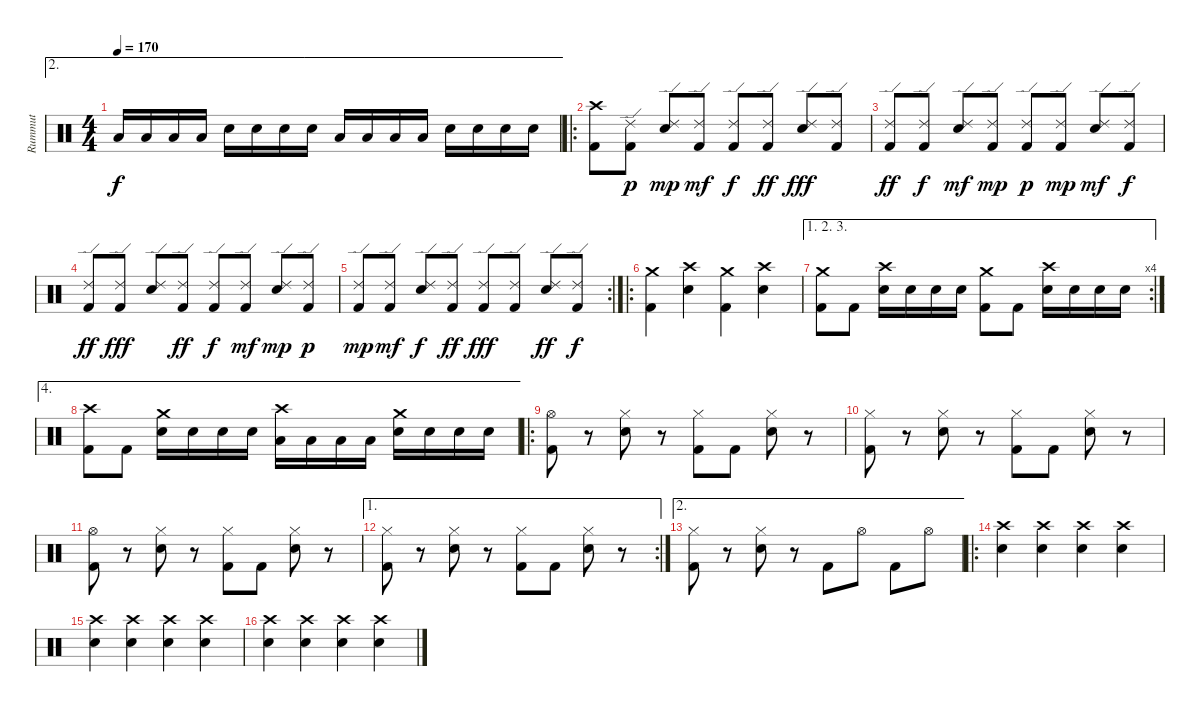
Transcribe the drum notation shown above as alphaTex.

\track ("Rummut" "Rummut") {instrument percussion}
\staff {score}
\articulation defaults
\ae 2
\ts (4 4)
\tempo 170
\clef neutral
\ks c "Low Tom (hit)".16{dy f} "Low Tom (hit)".16 "Low Tom (hit)".16 "Low Tom (hit)".16 "Electric Snare (hit)".16 "Electric Snare (hit)".16 "Electric Snare (hit)".16 "Electric Snare (hit)".16 "Low Tom (hit)".16 "Low Tom (hit)".16 "Low Tom (hit)".16 "Low Tom (hit)".16 "Electric Snare (hit)".16 "Electric Snare (hit)".16 "Electric Snare (hit)".16 "Electric Snare (hit)".16
|
\ro
("Crash high (hit)" "Kick (hit) 2").8 ("Ride (edge) 2" "Kick (hit) 2").8{dy p} ("Ride (edge) 2" "Electric Snare (hit)").8{dy mp} ("Ride (edge) 2" "Kick (hit) 2").8{dy mf} ("Ride (edge) 2" "Kick (hit) 2").8{dy f} ("Ride (edge) 2" "Kick (hit) 2").8{dy ff} ("Ride (edge) 2" "Electric Snare (hit)").8{dy fff} ("Ride (edge) 2" "Kick (hit) 2").8 |
("Ride (edge) 2" "Kick (hit) 2").8{dy ff} ("Ride (edge) 2" "Kick (hit) 2").8{dy f} ("Ride (edge) 2" "Electric Snare (hit)").8{dy mf} ("Ride (edge) 2" "Kick (hit) 2").8{dy mp} ("Ride (edge) 2" "Kick (hit) 2").8{dy p} ("Ride (edge) 2" "Kick (hit) 2").8{dy mp} ("Ride (edge) 2" "Electric Snare (hit)").8{dy mf} ("Ride (edge) 2" "Kick (hit) 2").8{dy f} |
("Ride (edge) 2" "Kick (hit) 2").8{dy ff} ("Ride (edge) 2" "Kick (hit) 2").8{dy fff} ("Ride (edge) 2" "Electric Snare (hit)").8 ("Ride (edge) 2" "Kick (hit) 2").8{dy ff} ("Ride (edge) 2" "Kick (hit) 2").8{dy f} ("Ride (edge) 2" "Kick (hit) 2").8{dy mf} ("Ride (edge) 2" "Electric Snare (hit)").8{dy mp} ("Ride (edge) 2" "Kick (hit) 2").8{dy p} |
\rc 2
("Ride (edge) 2" "Kick (hit) 2").8{dy mp} ("Ride (edge) 2" "Kick (hit) 2").8{dy mf} ("Ride (edge) 2" "Electric Snare (hit)").8{dy f} ("Ride (edge) 2" "Kick (hit) 2").8{dy ff} ("Ride (edge) 2" "Kick (hit) 2").8{dy fff} ("Ride (edge) 2" "Kick (hit) 2").8 ("Ride (edge) 2" "Electric Snare (hit)").8{dy ff} ("Ride (edge) 2" "Kick (hit) 2").8{dy f} |
\ro
("Crash medium (hit)" "Kick (hit) 2").4 ("Crash high (hit)" "Electric Snare (hit)").4 ("Crash medium (hit)" "Kick (hit) 2").4 ("Crash high (hit)" "Electric Snare (hit)").4 |
\ae (1 2 3)
\rc 4
("Crash medium (hit)" "Kick (hit) 2").8 "Kick (hit) 2".8 ("Crash high (hit)" "Electric Snare (hit)").16 "Electric Snare (hit)".16 "Electric Snare (hit)".16 "Electric Snare (hit)".16 ("Crash medium (hit)" "Kick (hit) 2").8 "Kick (hit) 2".8 ("Crash high (hit)" "Electric Snare (hit)").16 "Electric Snare (hit)".16 "Electric Snare (hit)".16 "Electric Snare (hit)".16 |
\ae 4
("Crash high (hit)" "Kick (hit) 2").8 "Kick (hit) 2".8 ("Crash medium (hit)" "Electric Snare (hit)").16 "Electric Snare (hit)".16 "Electric Snare (hit)".16 "Electric Snare (hit)".16 ("Crash high (hit)" "Low Tom (hit)").16 "Low Tom (hit)".16 "Low Tom (hit)".16 "Low Tom (hit)".16 ("Crash medium (hit)" "Electric Snare (hit)").16 "Electric Snare (hit)".16 "Electric Snare (hit)".16 "Electric Snare (hit)".16 |
\ro
("Hi-Hat (open)" "Kick (hit) 2").8 r.8 ("Hi-Hat (closed)" "Electric Snare (hit)").8 r.8 ("Hi-Hat (closed)" "Kick (hit) 2").8 "Kick (hit) 2".8 ("Hi-Hat (closed)" "Electric Snare (hit)").8 r.8 |
("Hi-Hat (closed)" "Kick (hit) 2").8 r.8 ("Hi-Hat (closed)" "Electric Snare (hit)").8 r.8 ("Hi-Hat (closed)" "Kick (hit) 2").8 "Kick (hit) 2".8 ("Hi-Hat (closed)" "Electric Snare (hit)").8 r.8 |
("Hi-Hat (open)" "Kick (hit) 2").8 r.8 ("Hi-Hat (closed)" "Electric Snare (hit)").8 r.8 ("Hi-Hat (closed)" "Kick (hit) 2").8 "Kick (hit) 2".8 ("Hi-Hat (closed)" "Electric Snare (hit)").8 r.8 |
\ae 1
\rc 2
("Hi-Hat (closed)" "Kick (hit) 2").8 r.8 ("Hi-Hat (closed)" "Electric Snare (hit)").8 r.8 ("Hi-Hat (closed)" "Kick (hit) 2").8 "Kick (hit) 2".8 ("Hi-Hat (closed)" "Electric Snare (hit)").8 r.8 |
\ae 2
("Hi-Hat (closed)" "Kick (hit) 2").8 r.8 ("Hi-Hat (closed)" "Electric Snare (hit)").8 r.8 "Kick (hit) 2".8 "Hi-Hat (open)".8 "Kick (hit) 2".8 "Hi-Hat (open)".8 |
\ro
("Crash high (hit)" "Electric Snare (hit)").4 ("Crash high (hit)" "Electric Snare (hit)").4 ("Crash high (hit)" "Electric Snare (hit)").4 ("Crash high (hit)" "Electric Snare (hit)").4 |
("Crash high (hit)" "Electric Snare (hit)").4 ("Crash high (hit)" "Electric Snare (hit)").4 ("Crash high (hit)" "Electric Snare (hit)").4 ("Crash high (hit)" "Electric Snare (hit)").4 |
("Crash high (hit)" "Electric Snare (hit)").4 ("Crash high (hit)" "Electric Snare (hit)").4 ("Crash high (hit)" "Electric Snare (hit)").4 ("Crash high (hit)" "Electric Snare (hit)").4
